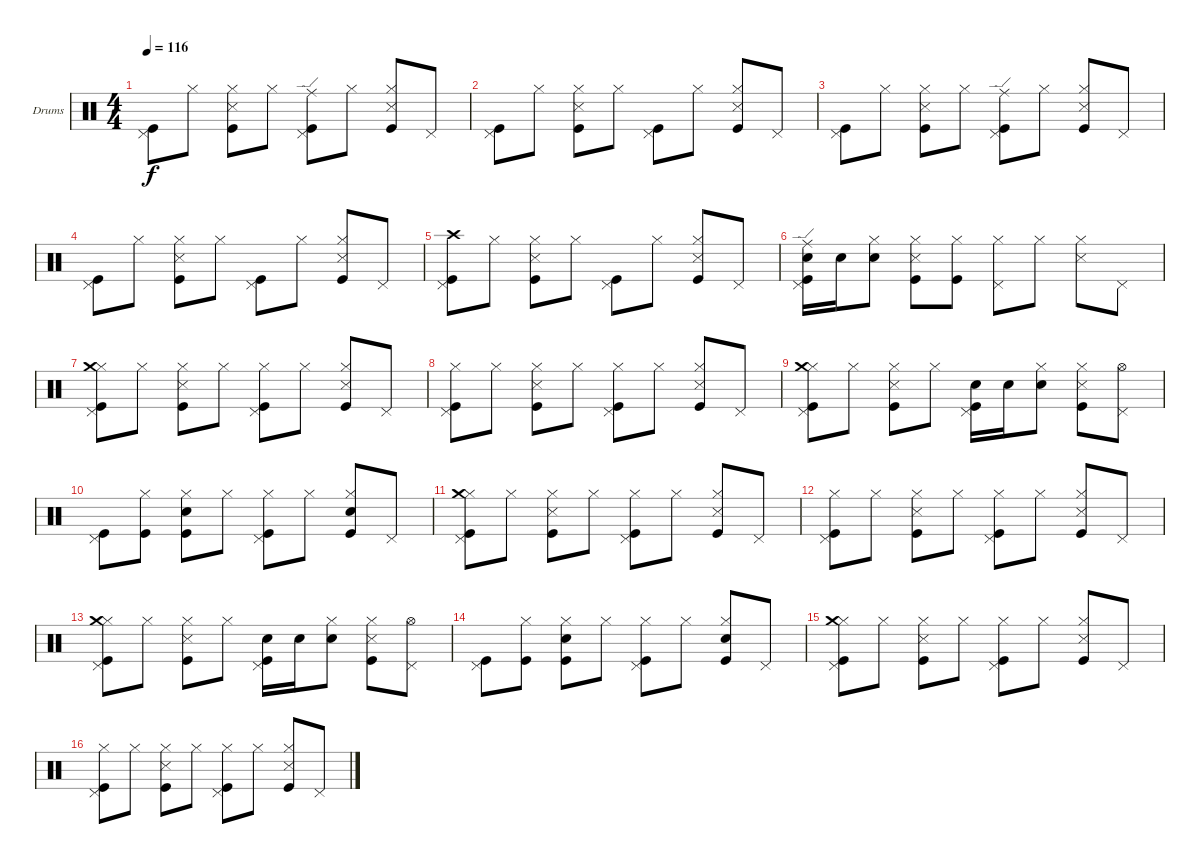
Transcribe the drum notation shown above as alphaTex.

\bracketExtendMode groupsimilarinstruments
\firstSystemTrackNameOrientation horizontal
\otherSystemsTrackNameOrientation horizontal
\track ("Drumkit" "Drums") {instrument percussion}
\staff {score}
\articulation defaults
\ts (4 4)
\tempo 116
\clef neutral
\ks c
("Kick (hit)" "Pedal Hi-Hat (hit)").8{dy f} "Hi-Hat (closed)".8 ("Snare (side stick) 3" "Kick (hit)" "Hi-Hat (closed)").8 "Hi-Hat (closed)".8 ("Kick (hit)" "Pedal Hi-Hat (hit)" "Ride (edge)").8 "Hi-Hat (closed)".8 ("Kick (hit)" "Snare (side stick) 3" "Hi-Hat (closed)").8 "Pedal Hi-Hat (hit)".8 |
("Kick (hit)" "Pedal Hi-Hat (hit)").8 "Hi-Hat (closed)".8 ("Snare (side stick) 3" "Kick (hit)" "Hi-Hat (closed)").8 "Hi-Hat (closed)".8 ("Kick (hit)" "Pedal Hi-Hat (hit)").8 "Hi-Hat (closed)".8 ("Kick (hit)" "Snare (side stick) 3" "Hi-Hat (closed)").8 "Pedal Hi-Hat (hit)".8 |
("Kick (hit)" "Pedal Hi-Hat (hit)").8 "Hi-Hat (closed)".8 ("Snare (side stick) 3" "Kick (hit)" "Hi-Hat (closed)").8 "Hi-Hat (closed)".8 ("Kick (hit)" "Pedal Hi-Hat (hit)" "Ride (edge)").8 "Hi-Hat (closed)".8 ("Kick (hit)" "Snare (side stick) 3" "Hi-Hat (closed)").8 "Pedal Hi-Hat (hit)".8 |
("Kick (hit)" "Pedal Hi-Hat (hit)").8 "Hi-Hat (closed)".8 ("Snare (side stick) 3" "Kick (hit)" "Hi-Hat (closed)").8 "Hi-Hat (closed)".8 ("Kick (hit)" "Pedal Hi-Hat (hit)").8 "Hi-Hat (closed)".8 ("Kick (hit)" "Snare (side stick) 3" "Hi-Hat (closed)").8 "Pedal Hi-Hat (hit)".8 |
("Kick (hit)" "Pedal Hi-Hat (hit)" "Crash high (hit)").8 "Hi-Hat (closed)".8 ("Snare (side stick) 3" "Kick (hit)" "Hi-Hat (closed)").8 "Hi-Hat (closed)".8 ("Kick (hit)" "Pedal Hi-Hat (hit)").8 "Hi-Hat (closed)".8 ("Kick (hit)" "Snare (side stick) 3" "Hi-Hat (closed)").8 "Pedal Hi-Hat (hit)".8 |
("Kick (hit)" "Snare (hit) 2" "Pedal Hi-Hat (hit)" "Ride (edge)").16 "Snare (hit) 2".16 ("Snare (hit) 2" "Hi-Hat (closed)").8 ("Snare (side stick) 3" "Kick (hit)" "Hi-Hat (closed)").8 ("Kick (hit)" "Hi-Hat (closed)").8 ("Hi-Hat (closed)" "Pedal Hi-Hat (hit)").8 "Hi-Hat (closed)".8 ("Snare (side stick) 3" "Hi-Hat (closed)").8 "Pedal Hi-Hat (hit)".8 |
("Kick (hit)" "Hi-Hat (closed)" "Pedal Hi-Hat (hit)" "Crash medium (hit)").8 "Hi-Hat (closed)".8 ("Snare (side stick) 3" "Hi-Hat (closed)" "Kick (hit)").8 "Hi-Hat (closed)".8 ("Kick (hit)" "Hi-Hat (closed)" "Pedal Hi-Hat (hit)").8 "Hi-Hat (closed)".8 ("Snare (side stick) 3" "Hi-Hat (closed)" "Kick (hit)").8 "Pedal Hi-Hat (hit)".8 |
("Kick (hit)" "Hi-Hat (closed)" "Pedal Hi-Hat (hit)").8 "Hi-Hat (closed)".8 ("Snare (side stick) 3" "Hi-Hat (closed)" "Kick (hit)").8 "Hi-Hat (closed)".8 ("Kick (hit)" "Hi-Hat (closed)" "Pedal Hi-Hat (hit)").8 "Hi-Hat (closed)".8 ("Snare (side stick) 3" "Hi-Hat (closed)" "Kick (hit)").8 "Pedal Hi-Hat (hit)".8 |
("Hi-Hat (closed)" "Kick (hit)" "Pedal Hi-Hat (hit)" "Crash medium (hit)").8 "Hi-Hat (closed)".8 ("Snare (side stick) 3" "Hi-Hat (closed)" "Kick (hit)").8 "Hi-Hat (closed)".8 ("Snare (hit) 2" "Pedal Hi-Hat (hit)" "Kick (hit)").16 "Snare (hit) 2".16 ("Snare (hit) 2" "Hi-Hat (closed)").8 ("Snare (side stick) 3" "Hi-Hat (closed)" "Kick (hit)").8 ("Hi-Hat (open)" "Pedal Hi-Hat (hit)").8 |
("Kick (hit)" "Pedal Hi-Hat (hit)").8 ("Kick (hit)" "Hi-Hat (closed)").8 ("Snare (hit) 2" "Hi-Hat (closed)" "Kick (hit)").8 "Hi-Hat (closed)".8 ("Hi-Hat (closed)" "Pedal Hi-Hat (hit)" "Kick (hit)").8 "Hi-Hat (closed)".8 ("Snare (hit) 2" "Hi-Hat (closed)" "Kick (hit)").8 "Pedal Hi-Hat (hit)".8 |
("Kick (hit)" "Hi-Hat (closed)" "Pedal Hi-Hat (hit)" "Crash medium (hit)").8 "Hi-Hat (closed)".8 ("Snare (side stick) 3" "Hi-Hat (closed)" "Kick (hit)").8 "Hi-Hat (closed)".8 ("Kick (hit)" "Hi-Hat (closed)" "Pedal Hi-Hat (hit)").8 "Hi-Hat (closed)".8 ("Snare (side stick) 3" "Hi-Hat (closed)" "Kick (hit)").8 "Pedal Hi-Hat (hit)".8 |
("Kick (hit)" "Hi-Hat (closed)" "Pedal Hi-Hat (hit)").8 "Hi-Hat (closed)".8 ("Snare (side stick) 3" "Hi-Hat (closed)" "Kick (hit)").8 "Hi-Hat (closed)".8 ("Kick (hit)" "Hi-Hat (closed)" "Pedal Hi-Hat (hit)").8 "Hi-Hat (closed)".8 ("Snare (side stick) 3" "Hi-Hat (closed)" "Kick (hit)").8 "Pedal Hi-Hat (hit)".8 |
("Hi-Hat (closed)" "Kick (hit)" "Pedal Hi-Hat (hit)" "Crash medium (hit)").8 "Hi-Hat (closed)".8 ("Snare (side stick) 3" "Hi-Hat (closed)" "Kick (hit)").8 "Hi-Hat (closed)".8 ("Snare (hit) 2" "Pedal Hi-Hat (hit)" "Kick (hit)").16 "Snare (hit) 2".16 ("Snare (hit) 2" "Hi-Hat (closed)").8 ("Snare (side stick) 3" "Hi-Hat (closed)" "Kick (hit)").8 ("Hi-Hat (open)" "Pedal Hi-Hat (hit)").8 |
("Kick (hit)" "Pedal Hi-Hat (hit)").8 ("Kick (hit)" "Hi-Hat (closed)").8 ("Snare (hit) 2" "Hi-Hat (closed)" "Kick (hit)").8 "Hi-Hat (closed)".8 ("Hi-Hat (closed)" "Pedal Hi-Hat (hit)" "Kick (hit)").8 "Hi-Hat (closed)".8 ("Snare (hit) 2" "Hi-Hat (closed)" "Kick (hit)").8 "Pedal Hi-Hat (hit)".8 |
("Kick (hit)" "Hi-Hat (closed)" "Pedal Hi-Hat (hit)" "Crash medium (hit)").8 "Hi-Hat (closed)".8 ("Snare (side stick) 3" "Hi-Hat (closed)" "Kick (hit)").8 "Hi-Hat (closed)".8 ("Kick (hit)" "Hi-Hat (closed)" "Pedal Hi-Hat (hit)").8 "Hi-Hat (closed)".8 ("Snare (side stick) 3" "Hi-Hat (closed)" "Kick (hit)").8 "Pedal Hi-Hat (hit)".8 |
("Kick (hit)" "Hi-Hat (closed)" "Pedal Hi-Hat (hit)").8 "Hi-Hat (closed)".8 ("Snare (side stick) 3" "Hi-Hat (closed)" "Kick (hit)").8 "Hi-Hat (closed)".8 ("Kick (hit)" "Hi-Hat (closed)" "Pedal Hi-Hat (hit)").8 "Hi-Hat (closed)".8 ("Snare (side stick) 3" "Hi-Hat (closed)" "Kick (hit)").8 "Pedal Hi-Hat (hit)".8
